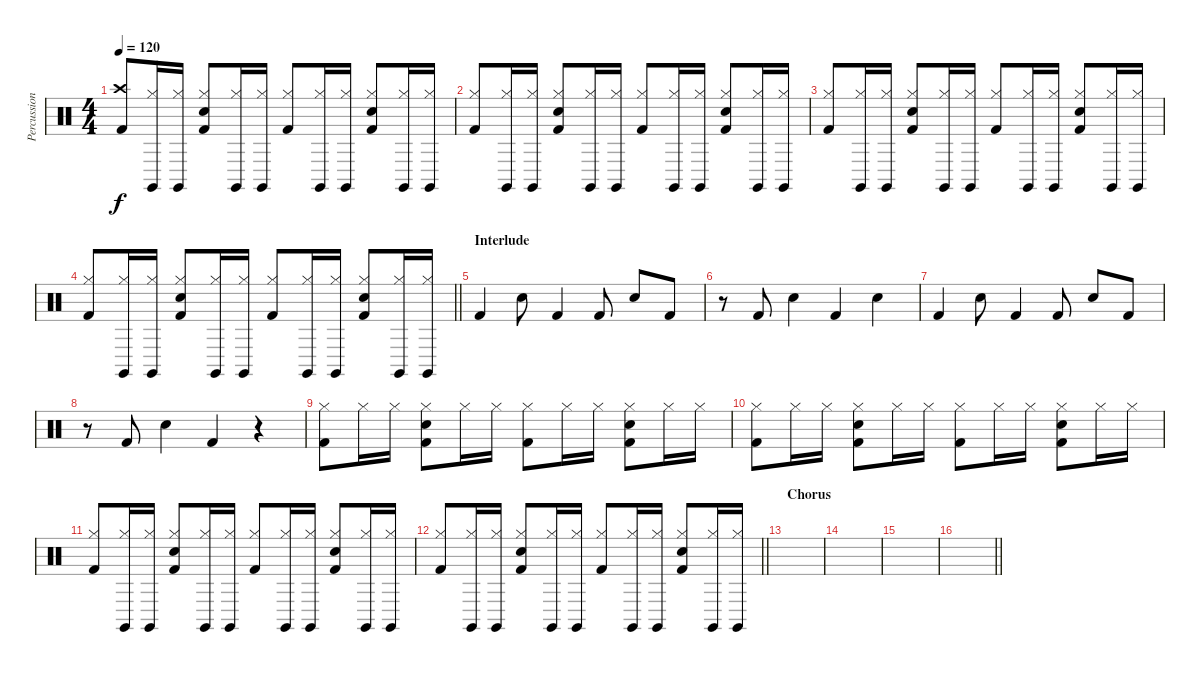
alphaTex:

\track ("Percussion" "Percussion") {instrument percussion}
\staff {score}
\articulation defaults
\ts (4 4)
\tempo 120
\clef neutral
\ks c
("Crash high (hit)" "Kick (hit) 2").8{dy f} ("Hi-Hat (closed)" "Claves (hit)").16 ("Hi-Hat (closed)" "Claves (hit)").16 ("Hi-Hat (closed)" "Electric Snare (hit)" "Kick (hit) 2").8 ("Hi-Hat (closed)" "Claves (hit)").16 ("Hi-Hat (closed)" "Claves (hit)").16 ("Hi-Hat (closed)" "Kick (hit) 2").8 ("Hi-Hat (closed)" "Claves (hit)").16 ("Hi-Hat (closed)" "Claves (hit)").16 ("Hi-Hat (closed)" "Electric Snare (hit)" "Kick (hit) 2").8 ("Hi-Hat (closed)" "Claves (hit)").16 ("Hi-Hat (closed)" "Claves (hit)").16 |
("Hi-Hat (closed)" "Kick (hit) 2").8 ("Hi-Hat (closed)" "Claves (hit)").16 ("Hi-Hat (closed)" "Claves (hit)").16 ("Hi-Hat (closed)" "Electric Snare (hit)" "Kick (hit) 2").8 ("Hi-Hat (closed)" "Claves (hit)").16 ("Hi-Hat (closed)" "Claves (hit)").16 ("Hi-Hat (closed)" "Kick (hit) 2").8 ("Hi-Hat (closed)" "Claves (hit)").16 ("Hi-Hat (closed)" "Claves (hit)").16 ("Hi-Hat (closed)" "Electric Snare (hit)" "Kick (hit) 2").8 ("Hi-Hat (closed)" "Claves (hit)").16 ("Hi-Hat (closed)" "Claves (hit)").16 |
("Hi-Hat (closed)" "Kick (hit) 2").8 ("Hi-Hat (closed)" "Claves (hit)").16 ("Hi-Hat (closed)" "Claves (hit)").16 ("Hi-Hat (closed)" "Electric Snare (hit)" "Kick (hit) 2").8 ("Hi-Hat (closed)" "Claves (hit)").16 ("Hi-Hat (closed)" "Claves (hit)").16 ("Hi-Hat (closed)" "Kick (hit) 2").8 ("Hi-Hat (closed)" "Claves (hit)").16 ("Hi-Hat (closed)" "Claves (hit)").16 ("Hi-Hat (closed)" "Electric Snare (hit)" "Kick (hit) 2").8 ("Hi-Hat (closed)" "Claves (hit)").16 ("Hi-Hat (closed)" "Claves (hit)").16 |
\barLineRight lightlight
("Hi-Hat (closed)" "Kick (hit) 2").8 ("Hi-Hat (closed)" "Claves (hit)").16 ("Hi-Hat (closed)" "Claves (hit)").16 ("Hi-Hat (closed)" "Electric Snare (hit)" "Kick (hit) 2").8 ("Hi-Hat (closed)" "Claves (hit)").16 ("Hi-Hat (closed)" "Claves (hit)").16 ("Hi-Hat (closed)" "Kick (hit) 2").8 ("Hi-Hat (closed)" "Claves (hit)").16 ("Hi-Hat (closed)" "Claves (hit)").16 ("Hi-Hat (closed)" "Electric Snare (hit)" "Kick (hit) 2").8 ("Hi-Hat (closed)" "Claves (hit)").16 ("Hi-Hat (closed)" "Claves (hit)").16 |
\section ("" "Interlude")
"Kick (hit) 2".4 "Electric Snare (hit)".8 "Kick (hit) 2".4 "Kick (hit) 2".8 "Electric Snare (hit)".8 "Kick (hit) 2".8 |
r.8 "Kick (hit) 2".8 "Electric Snare (hit)".4 "Kick (hit) 2".4 "Electric Snare (hit)".4 |
"Kick (hit) 2".4 "Electric Snare (hit)".8 "Kick (hit) 2".4 "Kick (hit) 2".8 "Electric Snare (hit)".8 "Kick (hit) 2".8 |
r.8 "Kick (hit) 2".8 "Electric Snare (hit)".4 "Kick (hit) 2".4 r.4 |
("Hi-Hat (closed)" "Kick (hit) 2").8 "Hi-Hat (closed)".16 "Hi-Hat (closed)".16 ("Hi-Hat (closed)" "Electric Snare (hit)" "Kick (hit) 2").8 "Hi-Hat (closed)".16 "Hi-Hat (closed)".16 ("Hi-Hat (closed)" "Kick (hit) 2").8 "Hi-Hat (closed)".16 "Hi-Hat (closed)".16 ("Hi-Hat (closed)" "Electric Snare (hit)" "Kick (hit) 2").8 "Hi-Hat (closed)".16 "Hi-Hat (closed)".16 |
("Hi-Hat (closed)" "Kick (hit) 2").8 "Hi-Hat (closed)".16 "Hi-Hat (closed)".16 ("Hi-Hat (closed)" "Electric Snare (hit)" "Kick (hit) 2").8 "Hi-Hat (closed)".16 "Hi-Hat (closed)".16 ("Hi-Hat (closed)" "Kick (hit) 2").8 "Hi-Hat (closed)".16 "Hi-Hat (closed)".16 ("Hi-Hat (closed)" "Electric Snare (hit)" "Kick (hit) 2").8 "Hi-Hat (closed)".16 "Hi-Hat (closed)".16 |
("Hi-Hat (closed)" "Kick (hit) 2").8 ("Hi-Hat (closed)" "Claves (hit)").16 ("Hi-Hat (closed)" "Claves (hit)").16 ("Hi-Hat (closed)" "Electric Snare (hit)" "Kick (hit) 2").8 ("Hi-Hat (closed)" "Claves (hit)").16 ("Hi-Hat (closed)" "Claves (hit)").16 ("Hi-Hat (closed)" "Kick (hit) 2").8 ("Hi-Hat (closed)" "Claves (hit)").16 ("Hi-Hat (closed)" "Claves (hit)").16 ("Hi-Hat (closed)" "Electric Snare (hit)" "Kick (hit) 2").8 ("Hi-Hat (closed)" "Claves (hit)").16 ("Hi-Hat (closed)" "Claves (hit)").16 |
\barLineRight lightlight
("Hi-Hat (closed)" "Kick (hit) 2").8 ("Hi-Hat (closed)" "Claves (hit)").16 ("Hi-Hat (closed)" "Claves (hit)").16 ("Hi-Hat (closed)" "Electric Snare (hit)" "Kick (hit) 2").8 ("Hi-Hat (closed)" "Claves (hit)").16 ("Hi-Hat (closed)" "Claves (hit)").16 ("Hi-Hat (closed)" "Kick (hit) 2").8 ("Hi-Hat (closed)" "Claves (hit)").16 ("Hi-Hat (closed)" "Claves (hit)").16 ("Hi-Hat (closed)" "Electric Snare (hit)" "Kick (hit) 2").8 ("Hi-Hat (closed)" "Claves (hit)").16 ("Hi-Hat (closed)" "Claves (hit)").16 |
\section ("" "Chorus")
|
|
|
\barLineRight lightlight
